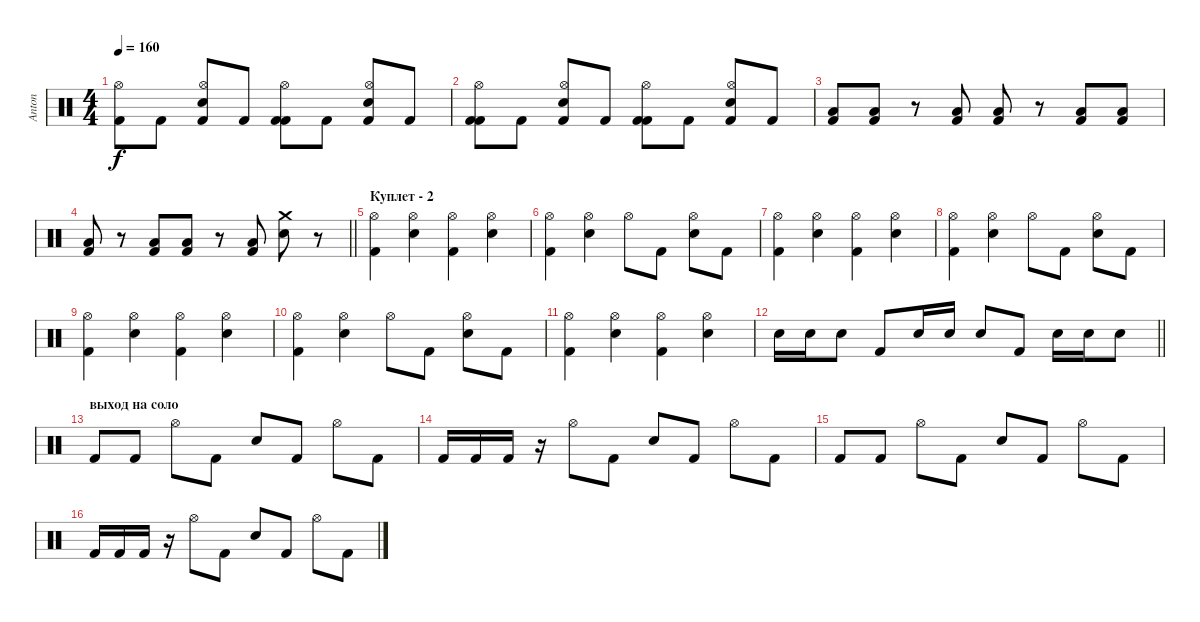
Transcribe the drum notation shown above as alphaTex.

\track ("Anton" "Anton") {instrument percussion}
\staff {score}
\articulation defaults
\ts (4 4)
\tempo 160
\clef neutral
\ks c
("Kick (hit) 2" "Hi-Hat (open)").8{dy f} "Kick (hit) 2".8 ("Electric Snare (hit)" "Hi-Hat (open)" "Kick (hit) 2").8 "Kick (hit) 2".8 ("Kick (hit) 2" "Hi-Hat (open)" "Kick (hit) 2").8 "Kick (hit) 2".8 ("Electric Snare (hit)" "Hi-Hat (open)" "Kick (hit) 2").8 "Kick (hit) 2".8 |
("Kick (hit) 2" "Hi-Hat (open)" "Kick (hit) 2").8 "Kick (hit) 2".8 ("Electric Snare (hit)" "Hi-Hat (open)" "Kick (hit) 2").8 "Kick (hit) 2".8 ("Kick (hit) 2" "Hi-Hat (open)" "Kick (hit) 2").8 "Kick (hit) 2".8 ("Electric Snare (hit)" "Hi-Hat (open)" "Kick (hit) 2").8 "Kick (hit) 2".8 |
("Kick (hit) 2" "Low Floor Tom (hit)").8 ("Kick (hit) 2" "Low Floor Tom (hit)").8 r.8 ("Kick (hit) 2" "Low Floor Tom (hit)").8 ("Kick (hit) 2" "Low Floor Tom (hit)").8 r.8 ("Kick (hit) 2" "Low Floor Tom (hit)").8 ("Kick (hit) 2" "Low Floor Tom (hit)").8 |
\barLineRight lightlight
("Kick (hit) 2" "Low Floor Tom (hit)").8 r.8 ("Kick (hit) 2" "Low Floor Tom (hit)").8 ("Kick (hit) 2" "Low Floor Tom (hit)").8 r.8 ("Kick (hit) 2" "Low Floor Tom (hit)").8 ("Electric Snare (hit)" "Crash medium (hit)").8 r.8 |
\section ("" "Куплет - 2")
("Kick (hit) 2" "Hi-Hat (open)").4 ("Electric Snare (hit)" "Hi-Hat (open)").4 ("Kick (hit) 2" "Hi-Hat (open)").4 ("Electric Snare (hit)" "Hi-Hat (open)").4 |
("Kick (hit) 2" "Hi-Hat (open)").4 ("Electric Snare (hit)" "Hi-Hat (open)").4 "Hi-Hat (open)".8 "Kick (hit) 2".8 ("Electric Snare (hit)" "Hi-Hat (open)").8 "Kick (hit) 2".8 |
("Kick (hit) 2" "Hi-Hat (open)").4 ("Electric Snare (hit)" "Hi-Hat (open)").4 ("Kick (hit) 2" "Hi-Hat (open)").4 ("Electric Snare (hit)" "Hi-Hat (open)").4 |
("Kick (hit) 2" "Hi-Hat (open)").4 ("Electric Snare (hit)" "Hi-Hat (open)").4 "Hi-Hat (open)".8 "Kick (hit) 2".8 ("Electric Snare (hit)" "Hi-Hat (open)").8 "Kick (hit) 2".8 |
("Kick (hit) 2" "Hi-Hat (open)").4 ("Electric Snare (hit)" "Hi-Hat (open)").4 ("Kick (hit) 2" "Hi-Hat (open)").4 ("Electric Snare (hit)" "Hi-Hat (open)").4 |
("Kick (hit) 2" "Hi-Hat (open)").4 ("Electric Snare (hit)" "Hi-Hat (open)").4 "Hi-Hat (open)".8 "Kick (hit) 2".8 ("Electric Snare (hit)" "Hi-Hat (open)").8 "Kick (hit) 2".8 |
("Kick (hit) 2" "Hi-Hat (open)").4 ("Electric Snare (hit)" "Hi-Hat (open)").4 ("Kick (hit) 2" "Hi-Hat (open)").4 ("Electric Snare (hit)" "Hi-Hat (open)").4 |
\barLineRight lightlight "Electric Snare (hit)".16 "Electric Snare (hit)".16 "Electric Snare (hit)".8 "Kick (hit) 2".8 "Electric Snare (hit)".16 "Electric Snare (hit)".16 "Electric Snare (hit)".8 "Kick (hit) 2".8 "Electric Snare (hit)".16 "Electric Snare (hit)".16 "Electric Snare (hit)".8
|
\section ("" "выход на соло")
"Kick (hit) 2".8 "Kick (hit) 2".8 "Hi-Hat (open)".8 "Kick (hit) 2".8 "Electric Snare (hit)".8 "Kick (hit) 2".8 "Hi-Hat (open)".8 "Kick (hit) 2".8 |
"Kick (hit) 2".16 "Kick (hit) 2".16 "Kick (hit) 2".16 r.16 "Hi-Hat (open)".8 "Kick (hit) 2".8 "Electric Snare (hit)".8 "Kick (hit) 2".8 "Hi-Hat (open)".8 "Kick (hit) 2".8 |
"Kick (hit) 2".8 "Kick (hit) 2".8 "Hi-Hat (open)".8 "Kick (hit) 2".8 "Electric Snare (hit)".8 "Kick (hit) 2".8 "Hi-Hat (open)".8 "Kick (hit) 2".8 |
"Kick (hit) 2".16 "Kick (hit) 2".16 "Kick (hit) 2".16 r.16 "Hi-Hat (open)".8 "Kick (hit) 2".8 "Electric Snare (hit)".8 "Kick (hit) 2".8 "Hi-Hat (open)".8 "Kick (hit) 2".8
